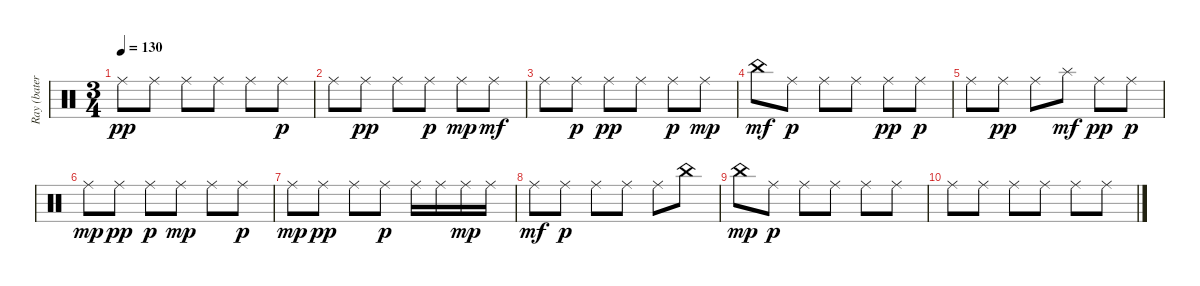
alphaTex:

\track ("Ray (batería)" "Ray (bater") {instrument percussion}
\staff {score}
\articulation defaults
\ts (3 4)
\tempo 130
\clef neutral
\ks c "Ride (middle)".8{dy pp} "Ride (middle)".8 "Ride (middle)".8 "Ride (middle)".8 "Ride (middle)".8 "Ride (middle)".8{dy p}
|
"Ride (middle)".8 "Ride (middle)".8{dy pp} "Ride (middle)".8 "Ride (middle)".8{dy p} "Ride (middle)".8{dy mp} "Ride (middle)".8{dy mf} |
"Ride (middle)".8 "Ride (middle)".8{dy p} "Ride (middle)".8{dy pp} "Ride (middle)".8 "Ride (middle)".8{dy p} "Ride (middle)".8{dy mp} |
"China (hit)".8{dy mf} "Ride (middle)".8{dy p} "Ride (middle)".8 "Ride (middle)".8 "Ride (middle)".8{dy pp} "Ride (middle)".8{dy p} |
"Ride (middle)".8 "Ride (middle)".8{dy pp} "Ride (middle)".8 "Splash (hit)".8{dy mf} "Ride (middle)".8{dy pp} "Ride (middle)".8{dy p} |
"Ride (middle)".8{dy mp} "Ride (middle)".8{dy pp} "Ride (middle)".8{dy p} "Ride (middle)".8{dy mp} "Ride (middle)".8 "Ride (middle)".8{dy p} |
"Ride (middle)".8{dy mp} "Ride (middle)".8{dy pp} "Ride (middle)".8 "Ride (middle)".8{dy p} "Ride (middle)".16 "Ride (middle)".16 "Ride (middle)".16{dy mp} "Ride (middle)".16 |
"Ride (middle)".8{dy mf} "Ride (middle)".8{dy p} "Ride (middle)".8 "Ride (middle)".8 "Ride (middle)".8 "China (hit)".8 |
"China (hit)".8{dy mp} "Ride (middle)".8{dy p} "Ride (middle)".8 "Ride (middle)".8 "Ride (middle)".8 "Ride (middle)".8 |
"Ride (middle)".8 "Ride (middle)".8 "Ride (middle)".8 "Ride (middle)".8 "Ride (middle)".8 "Ride (middle)".8
